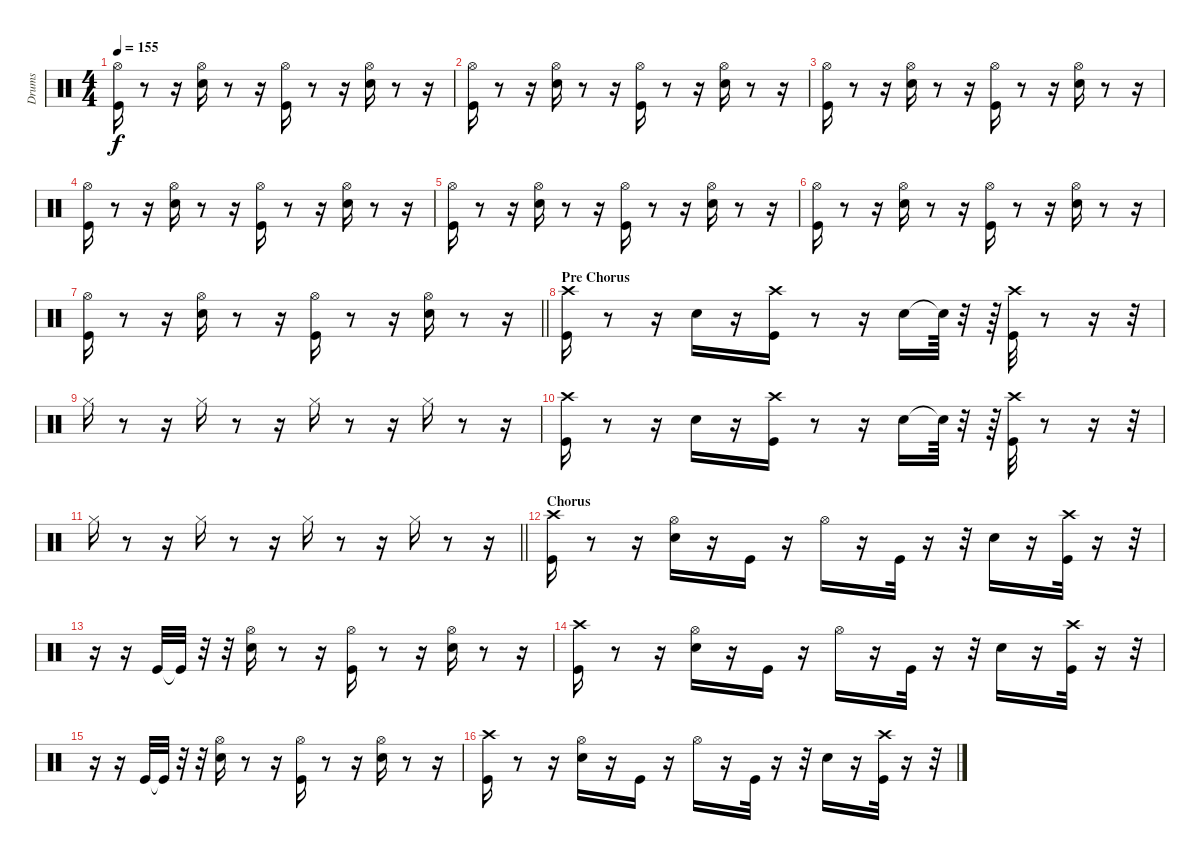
\track ("Drums" "Drums") {instrument percussion}
\staff {score}
\articulation defaults
\ts (4 4)
\tempo 155
\clef neutral
\ks c
("Hi-Hat (open)" "Kick (hit)").16{dy f} r.8 r.16 ("Hi-Hat (open)" "Snare (hit) 2").16 r.8 r.16 ("Kick (hit)" "Hi-Hat (open)").16 r.8 r.16 ("Snare (hit) 2" "Hi-Hat (open)").16 r.8 r.16 |
("Hi-Hat (open)" "Kick (hit)").16 r.8 r.16 ("Hi-Hat (open)" "Snare (hit) 2").16 r.8 r.16 ("Kick (hit)" "Hi-Hat (open)").16 r.8 r.16 ("Snare (hit) 2" "Hi-Hat (open)").16 r.8 r.16 |
("Hi-Hat (open)" "Kick (hit)").16 r.8 r.16 ("Hi-Hat (open)" "Snare (hit) 2").16 r.8 r.16 ("Kick (hit)" "Hi-Hat (open)").16 r.8 r.16 ("Snare (hit) 2" "Hi-Hat (open)").16 r.8 r.16 |
("Hi-Hat (open)" "Kick (hit)").16 r.8 r.16 ("Hi-Hat (open)" "Snare (hit) 2").16 r.8 r.16 ("Kick (hit)" "Hi-Hat (open)").16 r.8 r.16 ("Snare (hit) 2" "Hi-Hat (open)").16 r.8 r.16 |
("Hi-Hat (open)" "Kick (hit)").16 r.8 r.16 ("Hi-Hat (open)" "Snare (hit) 2").16 r.8 r.16 ("Kick (hit)" "Hi-Hat (open)").16 r.8 r.16 ("Snare (hit) 2" "Hi-Hat (open)").16 r.8 r.16 |
("Hi-Hat (open)" "Kick (hit)").16 r.8 r.16 ("Hi-Hat (open)" "Snare (hit) 2").16 r.8 r.16 ("Kick (hit)" "Hi-Hat (open)").16 r.8 r.16 ("Snare (hit) 2" "Hi-Hat (open)").16 r.8 r.16 |
\barLineRight lightlight
("Hi-Hat (open)" "Kick (hit)").16 r.8 r.16 ("Hi-Hat (open)" "Snare (hit) 2").16 r.8 r.16 ("Kick (hit)" "Hi-Hat (open)").16 r.8 r.16 ("Snare (hit) 2" "Hi-Hat (open)").16 r.8 r.16 |
\section ("" "Pre Chorus")
("Crash high (hit)" "Kick (hit)").16 r.8 r.16 "Snare (hit) 2".16 r.16 ("Kick (hit)" "Crash high (hit)").16 r.8 r.16 "Snare (hit) 2".16 "Snare (hit)"{t}.64 r.32 r.64 ("Kick (hit)" "Crash high (hit)").32 r.8 r.16 r.32 |
"Hi-Hat (closed)".16 r.8 r.16 "Hi-Hat (closed)".16 r.8 r.16 "Hi-Hat (closed)".16 r.8 r.16 "Hi-Hat (closed)".16 r.8 r.16 |
("Kick (hit)" "Crash high (hit)").16 r.8 r.16 "Snare (hit) 2".16 r.16 ("Kick (hit)" "Crash high (hit)").16 r.8 r.16 "Snare (hit) 2".16 "Snare (hit)"{t}.64 r.32 r.64 ("Kick (hit)" "Crash high (hit)").32 r.8 r.16 r.32 |
\barLineRight lightlight "Hi-Hat (closed)".16
r.8 r.16 "Hi-Hat (closed)".16 r.8 r.16 "Hi-Hat (closed)".16 r.8 r.16 "Hi-Hat (closed)".16 r.8 r.16 |
\section ("" "Chorus")
("Kick (hit)" "Crash high (hit)").16 r.8 r.16 ("Hi-Hat (open)" "Snare (hit) 2").16 r.16 "Kick (hit)".16 r.16 "Hi-Hat (open)".16 r.16 "Kick (hit)".32 r.16 r.32 "Snare (hit) 2".16 r.16 ("Kick (hit)" "Crash high (hit)").32 r.16 r.32 |
r.16 r.16 "Kick (hit)".32 "Kick (hit)"{t}.32 r.32 r.32 ("Hi-Hat (open)" "Snare (hit) 2").16 r.8 r.16 ("Hi-Hat (open)" "Kick (hit)").16 r.8 r.16 ("Hi-Hat (open)" "Snare (hit) 2").16 r.8 r.16 |
("Kick (hit)" "Crash high (hit)").16 r.8 r.16 ("Hi-Hat (open)" "Snare (hit) 2").16 r.16 "Kick (hit)".16 r.16 "Hi-Hat (open)".16 r.16 "Kick (hit)".32 r.16 r.32 "Snare (hit) 2".16 r.16 ("Kick (hit)" "Crash high (hit)").32 r.16 r.32 |
r.16 r.16 "Kick (hit)".32 "Kick (hit)"{t}.32 r.32 r.32 ("Hi-Hat (open)" "Snare (hit) 2").16 r.8 r.16 ("Hi-Hat (open)" "Kick (hit)").16 r.8 r.16 ("Hi-Hat (open)" "Snare (hit) 2").16 r.8 r.16 |
("Kick (hit)" "Crash high (hit)").16 r.8 r.16 ("Hi-Hat (open)" "Snare (hit) 2").16 r.16 "Kick (hit)".16 r.16 "Hi-Hat (open)".16 r.16 "Kick (hit)".32 r.16 r.32 "Snare (hit) 2".16 r.16 ("Kick (hit)" "Crash high (hit)").32 r.16 r.32
